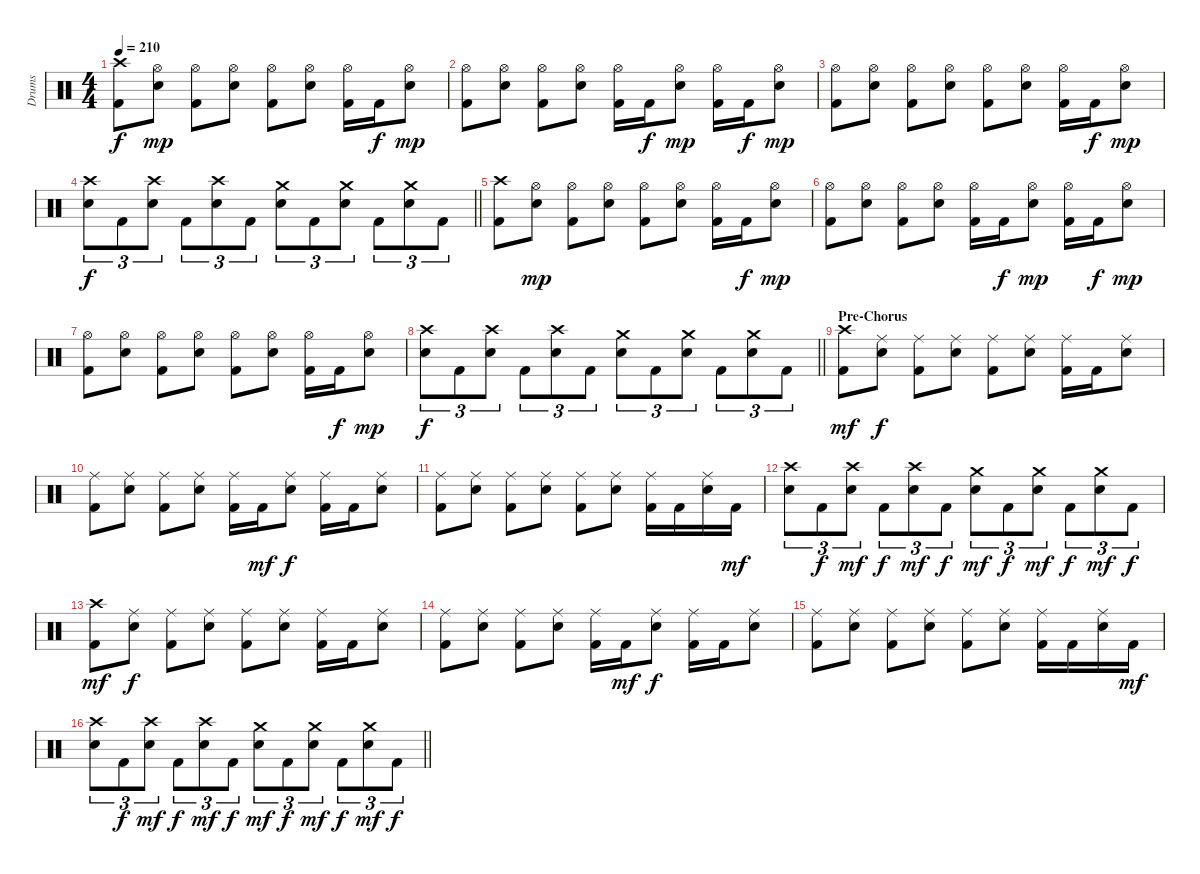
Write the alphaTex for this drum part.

\track ("Drums" "Drums") {instrument percussion}
\staff {score}
\articulation defaults
\ts (4 4)
\tempo 210
\clef neutral
\ks c
("Crash high (hit)" "Kick (hit) 2").8{dy f} ("Hi-Hat (open)" "Snare (hit) 2").8{dy mp} ("Hi-Hat (open)" "Kick (hit) 2").8 ("Hi-Hat (open)" "Snare (hit) 2").8 ("Hi-Hat (open)" "Kick (hit) 2").8 ("Hi-Hat (open)" "Snare (hit) 2").8 ("Hi-Hat (open)" "Kick (hit) 2").16 "Kick (hit) 2".16{dy f} ("Hi-Hat (open)" "Snare (hit) 2").8{dy mp} |
("Hi-Hat (open)" "Kick (hit) 2").8 ("Hi-Hat (open)" "Snare (hit) 2").8 ("Hi-Hat (open)" "Kick (hit) 2").8 ("Hi-Hat (open)" "Snare (hit) 2").8 ("Hi-Hat (open)" "Kick (hit) 2").16 "Kick (hit) 2".16{dy f} ("Hi-Hat (open)" "Snare (hit) 2").8{dy mp} ("Hi-Hat (open)" "Kick (hit) 2").16 "Kick (hit) 2".16{dy f} ("Hi-Hat (open)" "Snare (hit) 2").8{dy mp} |
("Hi-Hat (open)" "Kick (hit) 2").8 ("Hi-Hat (open)" "Snare (hit) 2").8 ("Hi-Hat (open)" "Kick (hit) 2").8 ("Hi-Hat (open)" "Snare (hit) 2").8 ("Hi-Hat (open)" "Kick (hit) 2").8 ("Hi-Hat (open)" "Snare (hit) 2").8 ("Hi-Hat (open)" "Kick (hit) 2").16 "Kick (hit) 2".16{dy f} ("Hi-Hat (open)" "Snare (hit) 2").8{dy mp} |
\barLineRight lightlight
("Crash high (hit)" "Snare (hit) 2").8{tu (3 2) dy f} "Kick (hit) 2".8{tu (3 2)} ("Crash high (hit)" "Snare (hit) 2").8{tu (3 2)} "Kick (hit) 2".8{tu (3 2)} ("Crash high (hit)" "Snare (hit) 2").8{tu (3 2)} "Kick (hit) 2".8{tu (3 2)} ("Crash medium (hit)" "Snare (hit) 2").8{tu (3 2)} "Kick (hit) 2".8{tu (3 2)} ("Crash medium (hit)" "Snare (hit) 2").8{tu (3 2)} "Kick (hit) 2".8{tu (3 2)} ("Crash medium (hit)" "Snare (hit) 2").8{tu (3 2)} "Kick (hit) 2".8{tu (3 2)} |
("Crash high (hit)" "Kick (hit) 2").8 ("Hi-Hat (open)" "Snare (hit) 2").8{dy mp} ("Hi-Hat (open)" "Kick (hit) 2").8 ("Hi-Hat (open)" "Snare (hit) 2").8 ("Hi-Hat (open)" "Kick (hit) 2").8 ("Hi-Hat (open)" "Snare (hit) 2").8 ("Hi-Hat (open)" "Kick (hit) 2").16 "Kick (hit) 2".16{dy f} ("Hi-Hat (open)" "Snare (hit) 2").8{dy mp} |
("Hi-Hat (open)" "Kick (hit) 2").8 ("Hi-Hat (open)" "Snare (hit) 2").8 ("Hi-Hat (open)" "Kick (hit) 2").8 ("Hi-Hat (open)" "Snare (hit) 2").8 ("Hi-Hat (open)" "Kick (hit) 2").16 "Kick (hit) 2".16{dy f} ("Hi-Hat (open)" "Snare (hit) 2").8{dy mp} ("Hi-Hat (open)" "Kick (hit) 2").16 "Kick (hit) 2".16{dy f} ("Hi-Hat (open)" "Snare (hit) 2").8{dy mp} |
("Hi-Hat (open)" "Kick (hit) 2").8 ("Hi-Hat (open)" "Snare (hit) 2").8 ("Hi-Hat (open)" "Kick (hit) 2").8 ("Hi-Hat (open)" "Snare (hit) 2").8 ("Hi-Hat (open)" "Kick (hit) 2").8 ("Hi-Hat (open)" "Snare (hit) 2").8 ("Hi-Hat (open)" "Kick (hit) 2").16 "Kick (hit) 2".16{dy f} ("Hi-Hat (open)" "Snare (hit) 2").8{dy mp} |
\barLineRight lightlight
("Crash high (hit)" "Snare (hit) 2").8{tu (3 2) dy f} "Kick (hit) 2".8{tu (3 2)} ("Crash high (hit)" "Snare (hit) 2").8{tu (3 2)} "Kick (hit) 2".8{tu (3 2)} ("Crash high (hit)" "Snare (hit) 2").8{tu (3 2)} "Kick (hit) 2".8{tu (3 2)} ("Crash medium (hit)" "Snare (hit) 2").8{tu (3 2)} "Kick (hit) 2".8{tu (3 2)} ("Crash medium (hit)" "Snare (hit) 2").8{tu (3 2)} "Kick (hit) 2".8{tu (3 2)} ("Crash medium (hit)" "Snare (hit) 2").8{tu (3 2)} "Kick (hit) 2".8{tu (3 2)} |
\section ("" "Pre-Chorus")
("Crash high (hit)" "Kick (hit) 2").8{dy mf} ("Ride (middle)" "Snare (hit) 2").8{dy f} ("Ride (middle)" "Kick (hit) 2").8 ("Ride (middle)" "Snare (hit) 2").8 ("Ride (middle)" "Kick (hit) 2").8 ("Ride (middle)" "Snare (hit) 2").8 ("Ride (middle)" "Kick (hit) 2").16 "Kick (hit) 2".16 ("Ride (middle)" "Snare (hit) 2").8 |
("Ride (middle)" "Kick (hit) 2").8 ("Ride (middle)" "Snare (hit) 2").8 ("Ride (middle)" "Kick (hit) 2").8 ("Ride (middle)" "Snare (hit) 2").8 ("Ride (middle)" "Kick (hit) 2").16 "Kick (hit) 2".16{dy mf} ("Ride (middle)" "Snare (hit) 2").8{dy f} ("Ride (middle)" "Kick (hit) 2").16 "Kick (hit) 2".16 ("Ride (middle)" "Snare (hit) 2").8 |
("Ride (middle)" "Kick (hit) 2").8 ("Ride (middle)" "Snare (hit) 2").8 ("Ride (middle)" "Kick (hit) 2").8 ("Ride (middle)" "Snare (hit) 2").8 ("Ride (middle)" "Kick (hit) 2").8 ("Ride (middle)" "Snare (hit) 2").8 ("Ride (middle)" "Kick (hit) 2").16 "Kick (hit) 2".16 ("Ride (middle)" "Snare (hit) 2").16 "Kick (hit) 2".16{dy mf} |
("Crash high (hit)" "Snare (hit) 2").8{tu (3 2)} "Kick (hit) 2".8{tu (3 2) dy f} ("Crash high (hit)" "Snare (hit) 2").8{tu (3 2) dy mf} "Kick (hit) 2".8{tu (3 2) dy f} ("Crash high (hit)" "Snare (hit) 2").8{tu (3 2) dy mf} "Kick (hit) 2".8{tu (3 2) dy f} ("Crash medium (hit)" "Snare (hit) 2").8{tu (3 2) dy mf} "Kick (hit) 2".8{tu (3 2) dy f} ("Crash medium (hit)" "Snare (hit) 2").8{tu (3 2) dy mf} "Kick (hit) 2".8{tu (3 2) dy f} ("Crash medium (hit)" "Snare (hit) 2").8{tu (3 2) dy mf} "Kick (hit) 2".8{tu (3 2) dy f} |
("Crash high (hit)" "Kick (hit) 2").8{dy mf} ("Ride (middle)" "Snare (hit) 2").8{dy f} ("Ride (middle)" "Kick (hit) 2").8 ("Ride (middle)" "Snare (hit) 2").8 ("Ride (middle)" "Kick (hit) 2").8 ("Ride (middle)" "Snare (hit) 2").8 ("Ride (middle)" "Kick (hit) 2").16 "Kick (hit) 2".16 ("Ride (middle)" "Snare (hit) 2").8 |
("Ride (middle)" "Kick (hit) 2").8 ("Ride (middle)" "Snare (hit) 2").8 ("Ride (middle)" "Kick (hit) 2").8 ("Ride (middle)" "Snare (hit) 2").8 ("Ride (middle)" "Kick (hit) 2").16 "Kick (hit) 2".16{dy mf} ("Ride (middle)" "Snare (hit) 2").8{dy f} ("Ride (middle)" "Kick (hit) 2").16 "Kick (hit) 2".16 ("Ride (middle)" "Snare (hit) 2").8 |
("Ride (middle)" "Kick (hit) 2").8 ("Ride (middle)" "Snare (hit) 2").8 ("Ride (middle)" "Kick (hit) 2").8 ("Ride (middle)" "Snare (hit) 2").8 ("Ride (middle)" "Kick (hit) 2").8 ("Ride (middle)" "Snare (hit) 2").8 ("Ride (middle)" "Kick (hit) 2").16 "Kick (hit) 2".16 ("Ride (middle)" "Snare (hit) 2").16 "Kick (hit) 2".16{dy mf} |
\barLineRight lightlight
("Crash high (hit)" "Snare (hit) 2").8{tu (3 2)} "Kick (hit) 2".8{tu (3 2) dy f} ("Crash high (hit)" "Snare (hit) 2").8{tu (3 2) dy mf} "Kick (hit) 2".8{tu (3 2) dy f} ("Crash high (hit)" "Snare (hit) 2").8{tu (3 2) dy mf} "Kick (hit) 2".8{tu (3 2) dy f} ("Crash medium (hit)" "Snare (hit) 2").8{tu (3 2) dy mf} "Kick (hit) 2".8{tu (3 2) dy f} ("Crash medium (hit)" "Snare (hit) 2").8{tu (3 2) dy mf} "Kick (hit) 2".8{tu (3 2) dy f} ("Crash medium (hit)" "Snare (hit) 2").8{tu (3 2) dy mf} "Kick (hit) 2".8{tu (3 2) dy f}
